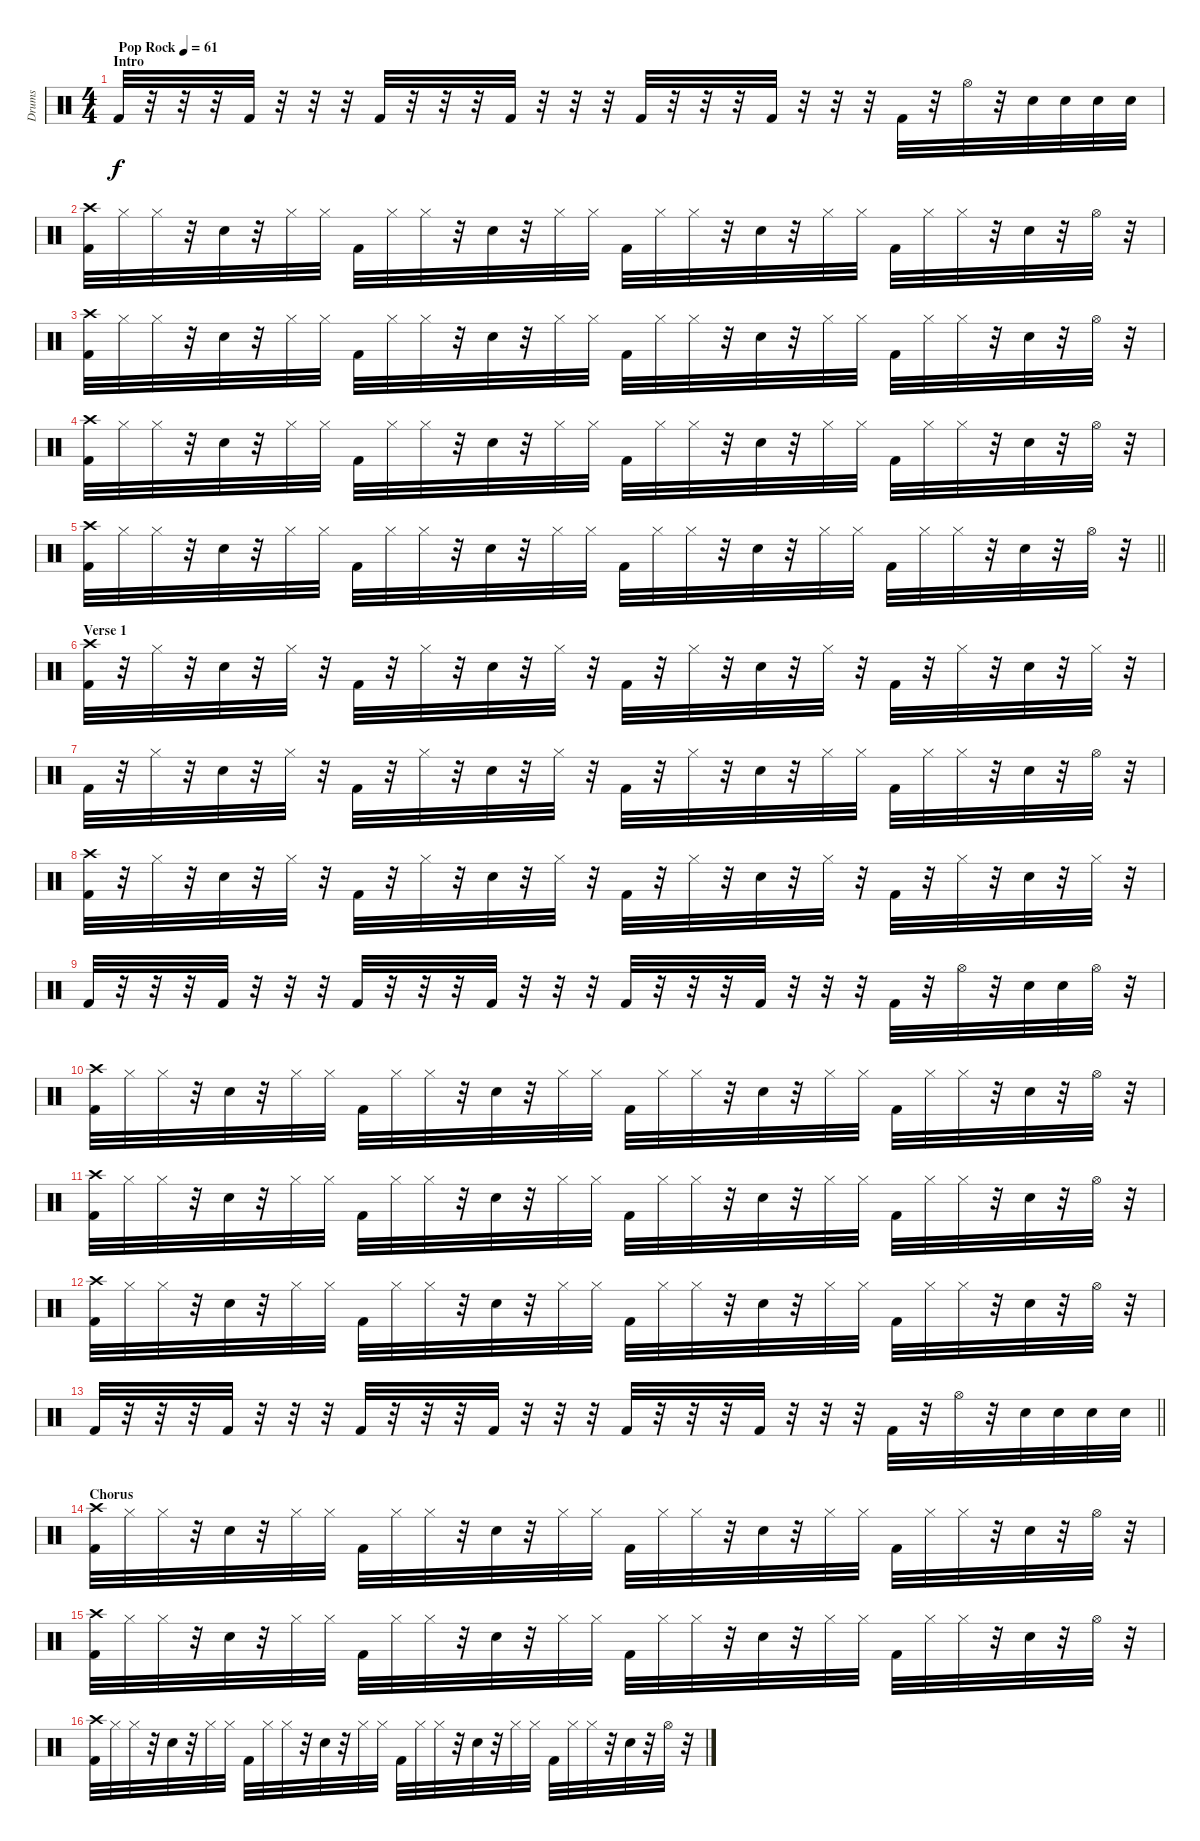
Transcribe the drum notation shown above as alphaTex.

\track ("Drums" "Drums") {instrument percussion}
\staff {score}
\articulation defaults
\ts (4 4)
\section ("" "Intro")
\tempo (61 "Pop Rock")
\clef neutral
\ks c "Kick (hit) 2".32{dy f}
r.32 r.32 r.32 "Kick (hit) 2".32 r.32 r.32 r.32 "Kick (hit) 2".32 r.32 r.32 r.32 "Kick (hit) 2".32 r.32 r.32 r.32 "Kick (hit) 2".32 r.32 r.32 r.32 "Kick (hit) 2".32 r.32 r.32 r.32 "Kick (hit) 2".32 r.32 "Hi-Hat (open)".32 r.32 "Snare (hit) 2".32 "Snare (hit) 2".32 "Snare (hit) 2".32 "Snare (hit) 2".32 |
("Kick (hit) 2" "Crash high (hit)").32 "Hi-Hat (closed)".32 "Hi-Hat (closed)".32 r.32 "Snare (hit) 2".32 r.32 "Hi-Hat (closed)".32 "Hi-Hat (closed)".32 "Kick (hit) 2".32 "Hi-Hat (closed)".32 "Hi-Hat (closed)".32 r.32 "Snare (hit) 2".32 r.32 "Hi-Hat (closed)".32 "Hi-Hat (closed)".32 "Kick (hit) 2".32 "Hi-Hat (closed)".32 "Hi-Hat (closed)".32 r.32 "Snare (hit) 2".32 r.32 "Hi-Hat (closed)".32 "Hi-Hat (closed)".32 "Kick (hit) 2".32 "Hi-Hat (closed)".32 "Hi-Hat (closed)".32 r.32 "Snare (hit) 2".32 r.32 "Hi-Hat (open)".32 r.32 |
("Kick (hit) 2" "Crash high (hit)").32 "Hi-Hat (closed)".32 "Hi-Hat (closed)".32 r.32 "Snare (hit) 2".32 r.32 "Hi-Hat (closed)".32 "Hi-Hat (closed)".32 "Kick (hit) 2".32 "Hi-Hat (closed)".32 "Hi-Hat (closed)".32 r.32 "Snare (hit) 2".32 r.32 "Hi-Hat (closed)".32 "Hi-Hat (closed)".32 "Kick (hit) 2".32 "Hi-Hat (closed)".32 "Hi-Hat (closed)".32 r.32 "Snare (hit) 2".32 r.32 "Hi-Hat (closed)".32 "Hi-Hat (closed)".32 "Kick (hit) 2".32 "Hi-Hat (closed)".32 "Hi-Hat (closed)".32 r.32 "Snare (hit) 2".32 r.32 "Hi-Hat (open)".32 r.32 |
("Kick (hit) 2" "Crash high (hit)").32 "Hi-Hat (closed)".32 "Hi-Hat (closed)".32 r.32 "Snare (hit) 2".32 r.32 "Hi-Hat (closed)".32 "Hi-Hat (closed)".32 "Kick (hit) 2".32 "Hi-Hat (closed)".32 "Hi-Hat (closed)".32 r.32 "Snare (hit) 2".32 r.32 "Hi-Hat (closed)".32 "Hi-Hat (closed)".32 "Kick (hit) 2".32 "Hi-Hat (closed)".32 "Hi-Hat (closed)".32 r.32 "Snare (hit) 2".32 r.32 "Hi-Hat (closed)".32 "Hi-Hat (closed)".32 "Kick (hit) 2".32 "Hi-Hat (closed)".32 "Hi-Hat (closed)".32 r.32 "Snare (hit) 2".32 r.32 "Hi-Hat (open)".32 r.32 |
\barLineRight lightlight
("Kick (hit) 2" "Crash high (hit)").32 "Hi-Hat (closed)".32 "Hi-Hat (closed)".32 r.32 "Snare (hit) 2".32 r.32 "Hi-Hat (closed)".32 "Hi-Hat (closed)".32 "Kick (hit) 2".32 "Hi-Hat (closed)".32 "Hi-Hat (closed)".32 r.32 "Snare (hit) 2".32 r.32 "Hi-Hat (closed)".32 "Hi-Hat (closed)".32 "Kick (hit) 2".32 "Hi-Hat (closed)".32 "Hi-Hat (closed)".32 r.32 "Snare (hit) 2".32 r.32 "Hi-Hat (closed)".32 "Hi-Hat (closed)".32 "Kick (hit) 2".32 "Hi-Hat (closed)".32 "Hi-Hat (closed)".32 r.32 "Snare (hit) 2".32 r.32 "Hi-Hat (open)".32 r.32 |
\section ("" "Verse 1")
("Kick (hit) 2" "Crash high (hit)").32 r.32 "Hi-Hat (closed)".32 r.32 "Snare (hit) 2".32 r.32 "Hi-Hat (closed)".32 r.32 "Kick (hit) 2".32 r.32 "Hi-Hat (closed)".32 r.32 "Snare (hit) 2".32 r.32 "Hi-Hat (closed)".32 r.32 "Kick (hit) 2".32 r.32 "Hi-Hat (closed)".32 r.32 "Snare (hit) 2".32 r.32 "Hi-Hat (closed)".32 r.32 "Kick (hit) 2".32 r.32 "Hi-Hat (closed)".32 r.32 "Snare (hit) 2".32 r.32 "Hi-Hat (closed)".32 r.32 |
"Kick (hit) 2".32 r.32 "Hi-Hat (closed)".32 r.32 "Snare (hit) 2".32 r.32 "Hi-Hat (closed)".32 r.32 "Kick (hit) 2".32 r.32 "Hi-Hat (closed)".32 r.32 "Snare (hit) 2".32 r.32 "Hi-Hat (closed)".32 r.32 "Kick (hit) 2".32 r.32 "Hi-Hat (closed)".32 r.32 "Snare (hit) 2".32 r.32 "Hi-Hat (closed)".32 "Hi-Hat (closed)".32 "Kick (hit) 2".32 "Hi-Hat (closed)".32 "Hi-Hat (closed)".32 r.32 "Snare (hit) 2".32 r.32 "Hi-Hat (open)".32 r.32 |
("Kick (hit) 2" "Crash high (hit)").32 r.32 "Hi-Hat (closed)".32 r.32 "Snare (hit) 2".32 r.32 "Hi-Hat (closed)".32 r.32 "Kick (hit) 2".32 r.32 "Hi-Hat (closed)".32 r.32 "Snare (hit) 2".32 r.32 "Hi-Hat (closed)".32 r.32 "Kick (hit) 2".32 r.32 "Hi-Hat (closed)".32 r.32 "Snare (hit) 2".32 r.32 "Hi-Hat (closed)".32 r.32 "Kick (hit) 2".32 r.32 "Hi-Hat (closed)".32 r.32 "Snare (hit) 2".32 r.32 "Hi-Hat (closed)".32 r.32 |
"Kick (hit) 2".32 r.32 r.32 r.32 "Kick (hit) 2".32 r.32 r.32 r.32 "Kick (hit) 2".32 r.32 r.32 r.32 "Kick (hit) 2".32 r.32 r.32 r.32 "Kick (hit) 2".32 r.32 r.32 r.32 "Kick (hit) 2".32 r.32 r.32 r.32 "Kick (hit) 2".32 r.32 "Hi-Hat (open)".32 r.32 "Snare (hit) 2".32 "Snare (hit) 2".32 "Hi-Hat (open)".32 r.32 |
("Kick (hit) 2" "Crash high (hit)").32 "Hi-Hat (closed)".32 "Hi-Hat (closed)".32 r.32 "Snare (hit) 2".32 r.32 "Hi-Hat (closed)".32 "Hi-Hat (closed)".32 "Kick (hit) 2".32 "Hi-Hat (closed)".32 "Hi-Hat (closed)".32 r.32 "Snare (hit) 2".32 r.32 "Hi-Hat (closed)".32 "Hi-Hat (closed)".32 "Kick (hit) 2".32 "Hi-Hat (closed)".32 "Hi-Hat (closed)".32 r.32 "Snare (hit) 2".32 r.32 "Hi-Hat (closed)".32 "Hi-Hat (closed)".32 "Kick (hit) 2".32 "Hi-Hat (closed)".32 "Hi-Hat (closed)".32 r.32 "Snare (hit) 2".32 r.32 "Hi-Hat (open)".32 r.32 |
("Kick (hit) 2" "Crash high (hit)").32 "Hi-Hat (closed)".32 "Hi-Hat (closed)".32 r.32 "Snare (hit) 2".32 r.32 "Hi-Hat (closed)".32 "Hi-Hat (closed)".32 "Kick (hit) 2".32 "Hi-Hat (closed)".32 "Hi-Hat (closed)".32 r.32 "Snare (hit) 2".32 r.32 "Hi-Hat (closed)".32 "Hi-Hat (closed)".32 "Kick (hit) 2".32 "Hi-Hat (closed)".32 "Hi-Hat (closed)".32 r.32 "Snare (hit) 2".32 r.32 "Hi-Hat (closed)".32 "Hi-Hat (closed)".32 "Kick (hit) 2".32 "Hi-Hat (closed)".32 "Hi-Hat (closed)".32 r.32 "Snare (hit) 2".32 r.32 "Hi-Hat (open)".32 r.32 |
("Kick (hit) 2" "Crash high (hit)").32 "Hi-Hat (closed)".32 "Hi-Hat (closed)".32 r.32 "Snare (hit) 2".32 r.32 "Hi-Hat (closed)".32 "Hi-Hat (closed)".32 "Kick (hit) 2".32 "Hi-Hat (closed)".32 "Hi-Hat (closed)".32 r.32 "Snare (hit) 2".32 r.32 "Hi-Hat (closed)".32 "Hi-Hat (closed)".32 "Kick (hit) 2".32 "Hi-Hat (closed)".32 "Hi-Hat (closed)".32 r.32 "Snare (hit) 2".32 r.32 "Hi-Hat (closed)".32 "Hi-Hat (closed)".32 "Kick (hit) 2".32 "Hi-Hat (closed)".32 "Hi-Hat (closed)".32 r.32 "Snare (hit) 2".32 r.32 "Hi-Hat (open)".32 r.32 |
\barLineRight lightlight "Kick (hit) 2".32
r.32 r.32 r.32 "Kick (hit) 2".32 r.32 r.32 r.32 "Kick (hit) 2".32 r.32 r.32 r.32 "Kick (hit) 2".32 r.32 r.32 r.32 "Kick (hit) 2".32 r.32 r.32 r.32 "Kick (hit) 2".32 r.32 r.32 r.32 "Kick (hit) 2".32 r.32 "Hi-Hat (open)".32 r.32 "Snare (hit) 2".32 "Snare (hit) 2".32 "Snare (hit) 2".32 "Snare (hit) 2".32 |
\section ("" "Chorus ")
("Kick (hit) 2" "Crash high (hit)").32 "Hi-Hat (closed)".32 "Hi-Hat (closed)".32 r.32 "Snare (hit) 2".32 r.32 "Hi-Hat (closed)".32 "Hi-Hat (closed)".32 "Kick (hit) 2".32 "Hi-Hat (closed)".32 "Hi-Hat (closed)".32 r.32 "Snare (hit) 2".32 r.32 "Hi-Hat (closed)".32 "Hi-Hat (closed)".32 "Kick (hit) 2".32 "Hi-Hat (closed)".32 "Hi-Hat (closed)".32 r.32 "Snare (hit) 2".32 r.32 "Hi-Hat (closed)".32 "Hi-Hat (closed)".32 "Kick (hit) 2".32 "Hi-Hat (closed)".32 "Hi-Hat (closed)".32 r.32 "Snare (hit) 2".32 r.32 "Hi-Hat (open)".32 r.32 |
("Kick (hit) 2" "Crash high (hit)").32 "Hi-Hat (closed)".32 "Hi-Hat (closed)".32 r.32 "Snare (hit) 2".32 r.32 "Hi-Hat (closed)".32 "Hi-Hat (closed)".32 "Kick (hit) 2".32 "Hi-Hat (closed)".32 "Hi-Hat (closed)".32 r.32 "Snare (hit) 2".32 r.32 "Hi-Hat (closed)".32 "Hi-Hat (closed)".32 "Kick (hit) 2".32 "Hi-Hat (closed)".32 "Hi-Hat (closed)".32 r.32 "Snare (hit) 2".32 r.32 "Hi-Hat (closed)".32 "Hi-Hat (closed)".32 "Kick (hit) 2".32 "Hi-Hat (closed)".32 "Hi-Hat (closed)".32 r.32 "Snare (hit) 2".32 r.32 "Hi-Hat (open)".32 r.32 |
("Kick (hit) 2" "Crash high (hit)").32 "Hi-Hat (closed)".32 "Hi-Hat (closed)".32 r.32 "Snare (hit) 2".32 r.32 "Hi-Hat (closed)".32 "Hi-Hat (closed)".32 "Kick (hit) 2".32 "Hi-Hat (closed)".32 "Hi-Hat (closed)".32 r.32 "Snare (hit) 2".32 r.32 "Hi-Hat (closed)".32 "Hi-Hat (closed)".32 "Kick (hit) 2".32 "Hi-Hat (closed)".32 "Hi-Hat (closed)".32 r.32 "Snare (hit) 2".32 r.32 "Hi-Hat (closed)".32 "Hi-Hat (closed)".32 "Kick (hit) 2".32 "Hi-Hat (closed)".32 "Hi-Hat (closed)".32 r.32 "Snare (hit) 2".32 r.32 "Hi-Hat (open)".32 r.32
